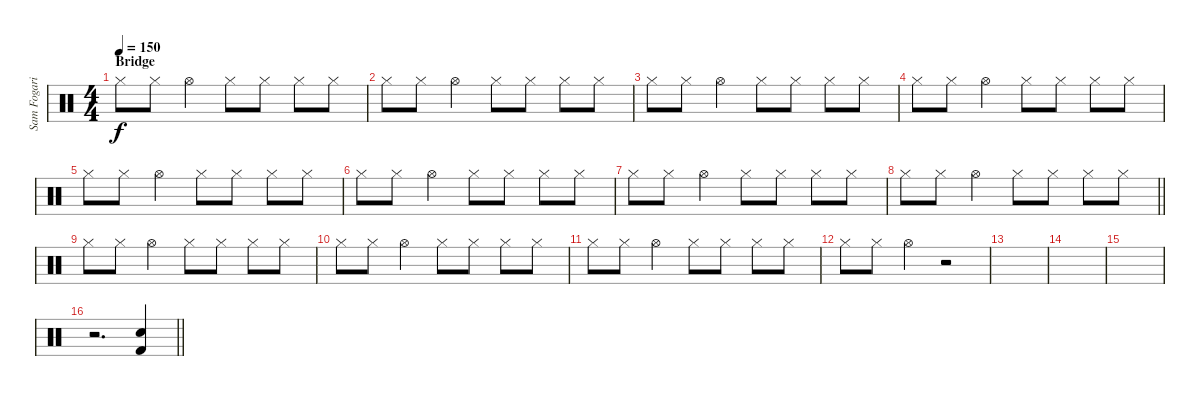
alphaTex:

\track ("Sam Fogarino" "Sam Fogari") {instrument percussion}
\staff {score}
\articulation defaults
\ts (4 4)
\section ("" "Bridge")
\tempo 150
\clef neutral
\ks c "Hi-Hat (closed)".8{dy f} "Hi-Hat (closed)".8 "Hi-Hat (open)".4 "Hi-Hat (closed)".8 "Hi-Hat (closed)".8 "Hi-Hat (closed)".8 "Hi-Hat (closed)".8
|
"Hi-Hat (closed)".8 "Hi-Hat (closed)".8 "Hi-Hat (open)".4 "Hi-Hat (closed)".8 "Hi-Hat (closed)".8 "Hi-Hat (closed)".8 "Hi-Hat (closed)".8 |
"Hi-Hat (closed)".8 "Hi-Hat (closed)".8 "Hi-Hat (open)".4 "Hi-Hat (closed)".8 "Hi-Hat (closed)".8 "Hi-Hat (closed)".8 "Hi-Hat (closed)".8 |
"Hi-Hat (closed)".8 "Hi-Hat (closed)".8 "Hi-Hat (open)".4 "Hi-Hat (closed)".8 "Hi-Hat (closed)".8 "Hi-Hat (closed)".8 "Hi-Hat (closed)".8 |
"Hi-Hat (closed)".8 "Hi-Hat (closed)".8 "Hi-Hat (open)".4 "Hi-Hat (closed)".8 "Hi-Hat (closed)".8 "Hi-Hat (closed)".8 "Hi-Hat (closed)".8 |
"Hi-Hat (closed)".8 "Hi-Hat (closed)".8 "Hi-Hat (open)".4 "Hi-Hat (closed)".8 "Hi-Hat (closed)".8 "Hi-Hat (closed)".8 "Hi-Hat (closed)".8 |
"Hi-Hat (closed)".8 "Hi-Hat (closed)".8 "Hi-Hat (open)".4 "Hi-Hat (closed)".8 "Hi-Hat (closed)".8 "Hi-Hat (closed)".8 "Hi-Hat (closed)".8 |
\barLineRight lightlight "Hi-Hat (closed)".8 "Hi-Hat (closed)".8 "Hi-Hat (open)".4 "Hi-Hat (closed)".8 "Hi-Hat (closed)".8 "Hi-Hat (closed)".8 "Hi-Hat (closed)".8
|
"Hi-Hat (closed)".8 "Hi-Hat (closed)".8 "Hi-Hat (open)".4 "Hi-Hat (closed)".8 "Hi-Hat (closed)".8 "Hi-Hat (closed)".8 "Hi-Hat (closed)".8 |
"Hi-Hat (closed)".8 "Hi-Hat (closed)".8 "Hi-Hat (open)".4 "Hi-Hat (closed)".8 "Hi-Hat (closed)".8 "Hi-Hat (closed)".8 "Hi-Hat (closed)".8 |
"Hi-Hat (closed)".8 "Hi-Hat (closed)".8 "Hi-Hat (open)".4 "Hi-Hat (closed)".8 "Hi-Hat (closed)".8 "Hi-Hat (closed)".8 "Hi-Hat (closed)".8 |
"Hi-Hat (closed)".8 "Hi-Hat (closed)".8 "Hi-Hat (open)".4 r.2 |
|
|
|
\barLineRight lightlight
r.2{d} ("Kick (hit) 2" "Electric Snare (hit)").4
